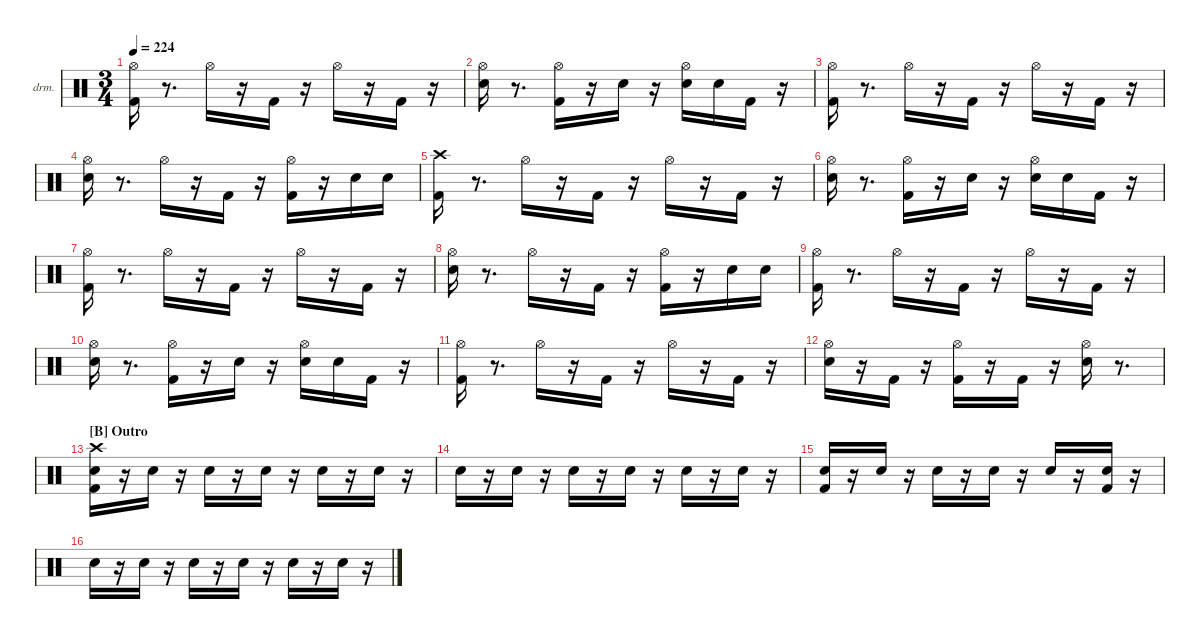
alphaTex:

\hideDynamics
\bracketExtendMode nobrackets
\firstSystemTrackNameOrientation horizontal
\otherSystemsTrackNameOrientation horizontal
\track ("Drums" "drm.") {instrument percussion}
\staff {score}
\articulation defaults
\ts (3 4)
\tempo 224
\clef neutral
\ks aminor
("Kick (hit) 2" "Hi-Hat (open)"{acc #}).16{dy fff beam Down} r.8{d beam Down} "Hi-Hat (open)"{acc #}.16{dy mp beam Down} r.16{beam Down} "Kick (hit) 2".16{dy f beam Down} r.16{beam Down} "Hi-Hat (open)"{acc #}.16{dy mf beam Down} r.16{beam Down} "Kick (hit) 2".16{dy ff beam Down} r.16{beam Down} |
("Snare (hit) 2" "Hi-Hat (open)"{acc #}).16{beam Down} r.8{d beam Down} ("Kick (hit) 2" "Hi-Hat (open)"{acc #}).16{dy mf beam Down} r.16{beam Down} "Snare (hit) 2".16{beam Down} r.16{beam Down} ("Snare (hit) 2" "Hi-Hat (open)"{acc #}).16{dy p beam Down} "Snare (hit) 2".16{dy ppp beam Down} "Kick (hit) 2".16{dy mp beam Down} r.16{beam Down} |
("Kick (hit) 2" "Hi-Hat (open)"{acc #}).16{dy fff beam Down} r.8{d beam Down} "Hi-Hat (open)"{acc #}.16{dy mp beam Down} r.16{beam Down} "Kick (hit) 2".16{dy f beam Down} r.16{beam Down} "Hi-Hat (open)"{acc #}.16{dy mf beam Down} r.16{beam Down} "Kick (hit) 2".16{dy ff beam Down} r.16{beam Down} |
("Snare (hit) 2" "Hi-Hat (open)"{acc #}).16{beam Down} r.8{d beam Down} "Hi-Hat (open)"{acc #}.16{dy f beam Down} r.16{beam Down} "Kick (hit) 2".16{dy mf beam Down} r.16{beam Down} ("Kick (hit) 2" "Hi-Hat (open)"{acc #}).16{dy fff beam Down} r.16{beam Down} "Snare (hit) 2".16{dy pp beam Down} "Snare (hit) 2".16{dy ppp beam Down} |
("Kick (hit) 2" "Crash high (hit)"{acc #}).16{dy fff beam Down} r.8{d beam Down} "Hi-Hat (open)"{acc #}.16{dy mp beam Down} r.16{beam Down} "Kick (hit) 2".16{dy f beam Down} r.16{beam Down} "Hi-Hat (open)"{acc #}.16{beam Down} r.16{beam Down} "Kick (hit) 2".16{dy ff beam Down} r.16{beam Down} |
("Snare (hit) 2" "Hi-Hat (open)"{acc #}).16{beam Down} r.8{d beam Down} ("Kick (hit) 2" "Hi-Hat (open)"{acc #}).16{dy mf beam Down} r.16{beam Down} "Snare (hit) 2".16{beam Down} r.16{beam Down} ("Snare (hit) 2" "Hi-Hat (open)"{acc #}).16{dy p beam Down} "Snare (hit) 2".16{dy ppp beam Down} "Kick (hit) 2".16{dy mp beam Down} r.16{beam Down} |
("Kick (hit) 2" "Hi-Hat (open)"{acc #}).16{dy fff beam Down} r.8{d beam Down} "Hi-Hat (open)"{acc #}.16{dy mp beam Down} r.16{beam Down} "Kick (hit) 2".16{dy f beam Down} r.16{beam Down} "Hi-Hat (open)"{acc #}.16{beam Down} r.16{beam Down} "Kick (hit) 2".16{dy ff beam Down} r.16{beam Down} |
("Snare (hit) 2" "Hi-Hat (open)"{acc #}).16{beam Down} r.8{d beam Down} "Hi-Hat (open)"{acc #}.16{dy mf beam Down} r.16{beam Down} "Kick (hit) 2".16{beam Down} r.16{beam Down} ("Kick (hit) 2" "Hi-Hat (open)"{acc #}).16{dy fff beam Down} r.16{beam Down} "Snare (hit) 2".16{dy pp beam Down} "Snare (hit) 2".16{dy ppp beam Down} |
("Kick (hit) 2" "Hi-Hat (open)"{acc #}).16{dy fff beam Down} r.8{d beam Down} "Hi-Hat (open)"{acc #}.16{dy mp beam Down} r.16{beam Down} "Kick (hit) 2".16{dy f beam Down} r.16{beam Down} "Hi-Hat (open)"{acc #}.16{dy mf beam Down} r.16{beam Down} "Kick (hit) 2".16{dy ff beam Down} r.16{beam Down} |
("Snare (hit) 2" "Hi-Hat (open)"{acc #}).16{beam Down} r.8{d beam Down} ("Kick (hit) 2" "Hi-Hat (open)"{acc #}).16{dy mf beam Down} r.16{beam Down} "Snare (hit) 2".16{beam Down} r.16{beam Down} ("Snare (hit) 2" "Hi-Hat (open)"{acc #}).16{dy p beam Down} "Snare (hit) 2".16{dy ppp beam Down} "Kick (hit) 2".16{dy mp beam Down} r.16{beam Down} |
("Kick (hit) 2" "Hi-Hat (open)"{acc #}).16{dy fff beam Down} r.8{d beam Down} "Hi-Hat (open)"{acc #}.16{dy mp beam Down} r.16{beam Down} "Kick (hit) 2".16{dy f beam Down} r.16{beam Down} "Hi-Hat (open)"{acc #}.16{dy mf beam Down} r.16{beam Down} "Kick (hit) 2".16{dy ff beam Down} r.16{beam Down} |
("Snare (hit) 2" "Hi-Hat (open)"{acc #}).16{beam Down} r.16{beam Down} "Kick (hit) 2".16{dy mp beam Down} r.16{beam Down} ("Kick (hit) 2" "Hi-Hat (open)"{acc #}).16{dy ff beam Down} r.16{beam Down} "Kick (hit) 2".16{dy p beam Down} r.16{beam Down} ("Snare (hit) 2" "Hi-Hat (open)"{acc #}).16{dy ff beam Down} r.8{d beam Down} |
\section ("B" "Outro")
("Kick (hit) 2" "Snare (hit) 2" "Crash high (hit)"{acc #}).16{dy fff beam Down} r.16{beam Down} "Snare (hit) 2".16{dy pp beam Down} r.16{beam Down} "Snare (hit) 2".16{dy ppp beam Down} r.16{beam Down} "Snare (hit) 2".16{dy mp beam Down} r.16{beam Down} "Snare (hit) 2".16{dy ppp beam Down} r.16{beam Down} "Snare (hit) 2".16{beam Down} r.16{beam Down} |
"Snare (hit) 2".16{dy fff beam Down} r.16{beam Down} "Snare (hit) 2".16{dy ppp beam Down} r.16{beam Down} "Snare (hit) 2".16{dy p beam Down} r.16{beam Down} "Snare (hit) 2".16{dy ff beam Down} r.16{beam Down} "Snare (hit) 2".16{dy ppp beam Down} r.16{beam Down} "Snare (hit) 2".16{dy ff beam Down} r.16{beam Down} |
("Kick (hit) 2" "Snare (hit) 2").16{dy f beam Up} r.16{beam Up} "Snare (hit) 2".16{dy ppp beam Up} r.16{beam Up} "Snare (hit) 2".16{beam Down} r.16{beam Down} "Snare (hit) 2".16{dy mp beam Down} r.16{beam Down} "Snare (hit) 2".16{dy ppp beam Up} r.16{beam Up} ("Kick (hit) 2" "Snare (hit) 2").16{dy mf beam Up} r.16{beam Up} |
"Snare (hit) 2".16{dy ff beam Down} r.16{beam Down} "Snare (hit) 2".16{dy ppp beam Down} r.16{beam Down} "Snare (hit) 2".16{dy mf beam Down} r.16{beam Down} "Snare (hit) 2".16{dy ppp beam Down} r.16{beam Down} "Snare (hit) 2".16{dy fff beam Down} r.16{beam Down} "Snare (hit) 2".16{dy ppp beam Down} r.16{beam Down}
